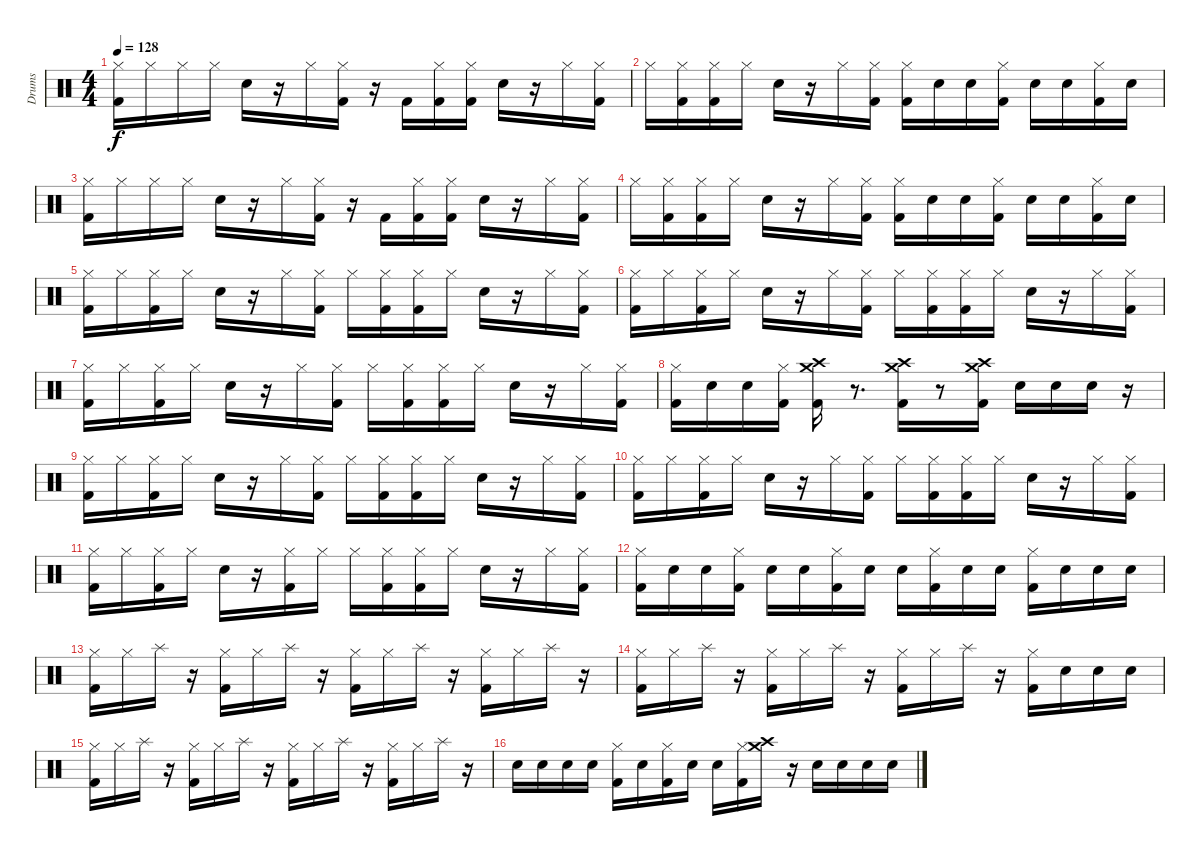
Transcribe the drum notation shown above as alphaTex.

\track ("Drums" "Drums") {instrument percussion}
\staff {score}
\articulation defaults
\ts (4 4)
\tempo 128
\clef neutral
\ks c
("Hi-Hat (closed)" "Kick (hit) 2").16{dy f} "Hi-Hat (closed)".16 "Hi-Hat (closed)".16 "Hi-Hat (closed)".16 "Snare (hit) 2".16 r.16 "Hi-Hat (closed)".16 ("Hi-Hat (closed)" "Kick (hit) 2").16 r.16 "Kick (hit) 2".16 ("Hi-Hat (closed)" "Kick (hit) 2").16 ("Hi-Hat (closed)" "Kick (hit) 2").16 "Snare (hit) 2".16 r.16 "Hi-Hat (closed)".16 ("Hi-Hat (closed)" "Kick (hit) 2").16 |
"Hi-Hat (closed)".16 ("Hi-Hat (closed)" "Kick (hit) 2").16 ("Hi-Hat (closed)" "Kick (hit) 2").16 "Hi-Hat (closed)".16 "Snare (hit) 2".16 r.16 "Hi-Hat (closed)".16 ("Hi-Hat (closed)" "Kick (hit) 2").16 ("Hi-Hat (closed)" "Kick (hit) 2").16 "Snare (hit) 2".16 "Snare (hit) 2".16 ("Hi-Hat (closed)" "Kick (hit) 2").16 "Snare (hit) 2".16 "Snare (hit) 2".16 ("Hi-Hat (closed)" "Kick (hit) 2").16 "Snare (hit) 2".16 |
("Hi-Hat (closed)" "Kick (hit) 2").16 "Hi-Hat (closed)".16 "Hi-Hat (closed)".16 "Hi-Hat (closed)".16 "Snare (hit) 2".16 r.16 "Hi-Hat (closed)".16 ("Hi-Hat (closed)" "Kick (hit) 2").16 r.16 "Kick (hit) 2".16 ("Hi-Hat (closed)" "Kick (hit) 2").16 ("Hi-Hat (closed)" "Kick (hit) 2").16 "Snare (hit) 2".16 r.16 "Hi-Hat (closed)".16 ("Hi-Hat (closed)" "Kick (hit) 2").16 |
"Hi-Hat (closed)".16 ("Hi-Hat (closed)" "Kick (hit) 2").16 ("Hi-Hat (closed)" "Kick (hit) 2").16 "Hi-Hat (closed)".16 "Snare (hit) 2".16 r.16 "Hi-Hat (closed)".16 ("Hi-Hat (closed)" "Kick (hit) 2").16 ("Hi-Hat (closed)" "Kick (hit) 2").16 "Snare (hit) 2".16 "Snare (hit) 2".16 ("Hi-Hat (closed)" "Kick (hit) 2").16 "Snare (hit) 2".16 "Snare (hit) 2".16 ("Hi-Hat (closed)" "Kick (hit) 2").16 "Snare (hit) 2".16 |
("Hi-Hat (closed)" "Kick (hit) 2").16 "Hi-Hat (closed)".16 ("Hi-Hat (closed)" "Kick (hit) 2").16 "Hi-Hat (closed)".16 "Snare (hit) 2".16 r.16 "Hi-Hat (closed)".16 ("Hi-Hat (closed)" "Kick (hit) 2").16 "Hi-Hat (closed)".16 ("Hi-Hat (closed)" "Kick (hit) 2").16 ("Hi-Hat (closed)" "Kick (hit) 2").16 "Hi-Hat (closed)".16 "Snare (hit) 2".16 r.16 "Hi-Hat (closed)".16 ("Hi-Hat (closed)" "Kick (hit) 2").16 |
("Hi-Hat (closed)" "Kick (hit) 2").16 "Hi-Hat (closed)".16 ("Hi-Hat (closed)" "Kick (hit) 2").16 "Hi-Hat (closed)".16 "Snare (hit) 2".16 r.16 "Hi-Hat (closed)".16 ("Hi-Hat (closed)" "Kick (hit) 2").16 "Hi-Hat (closed)".16 ("Hi-Hat (closed)" "Kick (hit) 2").16 ("Hi-Hat (closed)" "Kick (hit) 2").16 "Hi-Hat (closed)".16 "Snare (hit) 2".16 r.16 "Hi-Hat (closed)".16 ("Hi-Hat (closed)" "Kick (hit) 2").16 |
("Hi-Hat (closed)" "Kick (hit) 2").16 "Hi-Hat (closed)".16 ("Hi-Hat (closed)" "Kick (hit) 2").16 "Hi-Hat (closed)".16 "Snare (hit) 2".16 r.16 "Hi-Hat (closed)".16 ("Hi-Hat (closed)" "Kick (hit) 2").16 "Hi-Hat (closed)".16 ("Hi-Hat (closed)" "Kick (hit) 2").16 ("Hi-Hat (closed)" "Kick (hit) 2").16 "Hi-Hat (closed)".16 "Snare (hit) 2".16 r.16 "Hi-Hat (closed)".16 ("Hi-Hat (closed)" "Kick (hit) 2").16 |
("Hi-Hat (closed)" "Kick (hit) 2").16 "Snare (hit) 2".16 "Snare (hit) 2".16 ("Hi-Hat (closed)" "Kick (hit) 2").16 ("Crash medium (hit)" "Crash high (hit)" "Kick (hit) 2").16 r.8{d} ("Crash medium (hit)" "Crash high (hit)" "Kick (hit) 2").16 r.8 ("Crash medium (hit)" "Crash high (hit)" "Kick (hit) 2").16 "Snare (hit) 2".16 "Snare (hit) 2".16 "Snare (hit) 2".16 r.16 |
("Hi-Hat (closed)" "Kick (hit) 2").16 "Hi-Hat (closed)".16 ("Hi-Hat (closed)" "Kick (hit) 2").16 "Hi-Hat (closed)".16 "Snare (hit) 2".16 r.16 "Hi-Hat (closed)".16 ("Hi-Hat (closed)" "Kick (hit) 2").16 "Hi-Hat (closed)".16 ("Hi-Hat (closed)" "Kick (hit) 2").16 ("Hi-Hat (closed)" "Kick (hit) 2").16 "Hi-Hat (closed)".16 "Snare (hit) 2".16 r.16 "Hi-Hat (closed)".16 ("Hi-Hat (closed)" "Kick (hit) 2").16 |
("Hi-Hat (closed)" "Kick (hit) 2").16 "Hi-Hat (closed)".16 ("Hi-Hat (closed)" "Kick (hit) 2").16 "Hi-Hat (closed)".16 "Snare (hit) 2".16 r.16 "Hi-Hat (closed)".16 ("Hi-Hat (closed)" "Kick (hit) 2").16 "Hi-Hat (closed)".16 ("Hi-Hat (closed)" "Kick (hit) 2").16 ("Hi-Hat (closed)" "Kick (hit) 2").16 "Hi-Hat (closed)".16 "Snare (hit) 2".16 r.16 "Hi-Hat (closed)".16 ("Hi-Hat (closed)" "Kick (hit) 2").16 |
("Hi-Hat (closed)" "Kick (hit) 2").16 "Hi-Hat (closed)".16 ("Hi-Hat (closed)" "Kick (hit) 2").16 "Hi-Hat (closed)".16 "Snare (hit) 2".16 r.16 ("Hi-Hat (closed)" "Kick (hit) 2").16 "Hi-Hat (closed)".16 "Hi-Hat (closed)".16 ("Hi-Hat (closed)" "Kick (hit) 2").16 ("Hi-Hat (closed)" "Kick (hit) 2").16 "Hi-Hat (closed)".16 "Snare (hit) 2".16 r.16 "Hi-Hat (closed)".16 ("Hi-Hat (closed)" "Kick (hit) 2").16 |
("Hi-Hat (closed)" "Kick (hit) 2").16 "Snare (hit) 2".16 "Snare (hit) 2".16 ("Hi-Hat (closed)" "Kick (hit) 2").16 "Snare (hit) 2".16 "Snare (hit) 2".16 ("Hi-Hat (closed)" "Kick (hit) 2").16 "Snare (hit) 2".16 "Snare (hit) 2".16 ("Hi-Hat (closed)" "Kick (hit) 2").16 "Snare (hit) 2".16 "Snare (hit) 2".16 ("Hi-Hat (closed)" "Kick (hit) 2").16 "Snare (hit) 2".16 "Snare (hit) 2".16 "Snare (hit) 2".16 |
("Hi-Hat (closed)" "Kick (hit) 2").16 "Hi-Hat (closed)".16 "Splash (hit)".16 r.16 ("Hi-Hat (closed)" "Kick (hit) 2").16 "Hi-Hat (closed)".16 "Splash (hit)".16 r.16 ("Hi-Hat (closed)" "Kick (hit) 2").16 "Hi-Hat (closed)".16 "Splash (hit)".16 r.16 ("Hi-Hat (closed)" "Kick (hit) 2").16 "Hi-Hat (closed)".16 "Splash (hit)".16 r.16 |
("Hi-Hat (closed)" "Kick (hit) 2").16 "Hi-Hat (closed)".16 "Splash (hit)".16 r.16 ("Hi-Hat (closed)" "Kick (hit) 2").16 "Hi-Hat (closed)".16 "Splash (hit)".16 r.16 ("Hi-Hat (closed)" "Kick (hit) 2").16 "Hi-Hat (closed)".16 "Splash (hit)".16 r.16 ("Hi-Hat (closed)" "Kick (hit) 2").16 "Snare (hit) 2".16 "Snare (hit) 2".16 "Snare (hit) 2".16 |
("Hi-Hat (closed)" "Kick (hit) 2").16 "Hi-Hat (closed)".16 "Splash (hit)".16 r.16 ("Hi-Hat (closed)" "Kick (hit) 2").16 "Hi-Hat (closed)".16 "Splash (hit)".16 r.16 ("Hi-Hat (closed)" "Kick (hit) 2").16 "Hi-Hat (closed)".16 "Splash (hit)".16 r.16 ("Hi-Hat (closed)" "Kick (hit) 2").16 "Hi-Hat (closed)".16 "Splash (hit)".16 r.16 |
"Snare (hit) 2".16 "Snare (hit) 2".16 "Snare (hit) 2".16 "Snare (hit) 2".16 ("Hi-Hat (closed)" "Kick (hit) 2").16 "Snare (hit) 2".16 ("Hi-Hat (closed)" "Kick (hit) 2").16 "Snare (hit) 2".16 "Snare (hit) 2".16 ("Hi-Hat (closed)" "Kick (hit) 2").16 ("Crash medium (hit)" "Crash high (hit)").16 r.16 "Snare (hit) 2".16 "Snare (hit) 2".16 "Snare (hit) 2".16 "Snare (hit) 2".16
